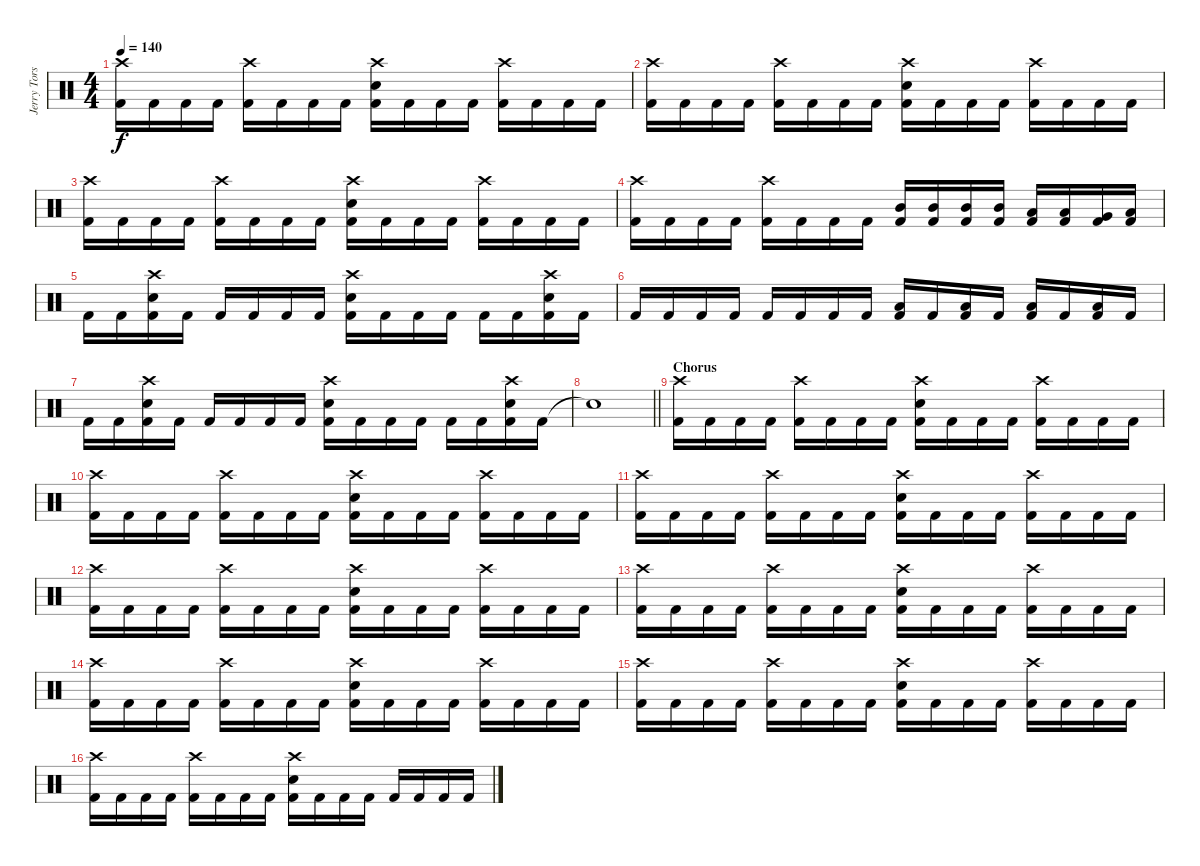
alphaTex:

\track ("Jerry Torstensson" "Jerry Tors") {instrument percussion}
\staff {score}
\articulation defaults
\ts (4 4)
\tempo 140
\clef neutral
\ks c
("Crash high (hit)" "Kick (hit) 2").16{dy f} "Kick (hit) 2".16 "Kick (hit) 2".16 "Kick (hit) 2".16 ("Crash high (hit)" "Kick (hit) 2").16 "Kick (hit) 2".16 "Kick (hit) 2".16 "Kick (hit) 2".16 ("Crash high (hit)" "Snare (hit) 2" "Kick (hit) 2").16 "Kick (hit) 2".16 "Kick (hit) 2".16 "Kick (hit) 2".16 ("Crash high (hit)" "Kick (hit) 2").16 "Kick (hit) 2".16 "Kick (hit) 2".16 "Kick (hit) 2".16 |
("Crash high (hit)" "Kick (hit) 2").16 "Kick (hit) 2".16 "Kick (hit) 2".16 "Kick (hit) 2".16 ("Crash high (hit)" "Kick (hit) 2").16 "Kick (hit) 2".16 "Kick (hit) 2".16 "Kick (hit) 2".16 ("Crash high (hit)" "Snare (hit) 2" "Kick (hit) 2").16 "Kick (hit) 2".16 "Kick (hit) 2".16 "Kick (hit) 2".16 ("Crash high (hit)" "Kick (hit) 2").16 "Kick (hit) 2".16 "Kick (hit) 2".16 "Kick (hit) 2".16 |
("Crash high (hit)" "Kick (hit) 2").16 "Kick (hit) 2".16 "Kick (hit) 2".16 "Kick (hit) 2".16 ("Crash high (hit)" "Kick (hit) 2").16 "Kick (hit) 2".16 "Kick (hit) 2".16 "Kick (hit) 2".16 ("Crash high (hit)" "Snare (hit) 2" "Kick (hit) 2").16 "Kick (hit) 2".16 "Kick (hit) 2".16 "Kick (hit) 2".16 ("Crash high (hit)" "Kick (hit) 2").16 "Kick (hit) 2".16 "Kick (hit) 2".16 "Kick (hit) 2".16 |
("Crash high (hit)" "Kick (hit) 2").16 "Kick (hit) 2".16 "Kick (hit) 2".16 "Kick (hit) 2".16 ("Crash high (hit)" "Kick (hit) 2").16 "Kick (hit) 2".16 "Kick (hit) 2".16 "Kick (hit) 2".16 ("Mid Tom (hit)" "Kick (hit) 2").16 ("Mid Tom (hit)" "Kick (hit) 2").16 ("Mid Tom (hit)" "Kick (hit) 2").16 ("Mid Tom (hit)" "Kick (hit) 2").16 ("Low Tom (hit)" "Kick (hit) 2").16 ("Low Tom (hit)" "Kick (hit) 2").16 ("Very Low Tom (hit)" "Kick (hit) 2").16 ("Low Floor Tom (hit)" "Kick (hit) 2").16 |
"Kick (hit) 2".16 "Kick (hit) 2".16 ("Crash high (hit)" "Snare (hit) 2" "Kick (hit) 2").16 "Kick (hit) 2".16 "Kick (hit) 2".16 "Kick (hit) 2".16 "Kick (hit) 2".16 "Kick (hit) 2".16 ("Crash high (hit)" "Snare (hit) 2" "Kick (hit) 2").16 "Kick (hit) 2".16 "Kick (hit) 2".16 "Kick (hit) 2".16 "Kick (hit) 2".16 "Kick (hit) 2".16 ("Crash high (hit)" "Snare (hit) 2" "Kick (hit) 2").16 "Kick (hit) 2".16 |
"Kick (hit) 2".16 "Kick (hit) 2".16 "Kick (hit) 2".16 "Kick (hit) 2".16 "Kick (hit) 2".16 "Kick (hit) 2".16 "Kick (hit) 2".16 "Kick (hit) 2".16 ("Low Tom (hit)" "Kick (hit) 2").16 "Kick (hit) 2".16 ("Low Tom (hit)" "Kick (hit) 2").16 "Kick (hit) 2".16 ("Low Tom (hit)" "Kick (hit) 2").16 "Kick (hit) 2".16 ("Low Tom (hit)" "Kick (hit) 2").16 "Kick (hit) 2".16 |
"Kick (hit) 2".16 "Kick (hit) 2".16 ("Crash high (hit)" "Snare (hit) 2" "Kick (hit) 2").16 "Kick (hit) 2".16 "Kick (hit) 2".16 "Kick (hit) 2".16 "Kick (hit) 2".16 "Kick (hit) 2".16 ("Crash high (hit)" "Snare (hit) 2" "Kick (hit) 2").16 "Kick (hit) 2".16 "Kick (hit) 2".16 "Kick (hit) 2".16 "Kick (hit) 2".16 "Kick (hit) 2".16 ("Crash high (hit)" "Snare (hit) 2" "Kick (hit) 2").16 "Kick (hit) 2".16 |
\barLineRight lightlight "Snare (hit)"{t}.1
|
\section ("" "Chorus")
("Crash high (hit)" "Kick (hit) 2").16 "Kick (hit) 2".16 "Kick (hit) 2".16 "Kick (hit) 2".16 ("Crash high (hit)" "Kick (hit) 2").16 "Kick (hit) 2".16 "Kick (hit) 2".16 "Kick (hit) 2".16 ("Crash high (hit)" "Snare (hit) 2" "Kick (hit) 2").16 "Kick (hit) 2".16 "Kick (hit) 2".16 "Kick (hit) 2".16 ("Crash high (hit)" "Kick (hit) 2").16 "Kick (hit) 2".16 "Kick (hit) 2".16 "Kick (hit) 2".16 |
("Crash high (hit)" "Kick (hit) 2").16 "Kick (hit) 2".16 "Kick (hit) 2".16 "Kick (hit) 2".16 ("Crash high (hit)" "Kick (hit) 2").16 "Kick (hit) 2".16 "Kick (hit) 2".16 "Kick (hit) 2".16 ("Crash high (hit)" "Snare (hit) 2" "Kick (hit) 2").16 "Kick (hit) 2".16 "Kick (hit) 2".16 "Kick (hit) 2".16 ("Crash high (hit)" "Kick (hit) 2").16 "Kick (hit) 2".16 "Kick (hit) 2".16 "Kick (hit) 2".16 |
("Crash high (hit)" "Kick (hit) 2").16 "Kick (hit) 2".16 "Kick (hit) 2".16 "Kick (hit) 2".16 ("Crash high (hit)" "Kick (hit) 2").16 "Kick (hit) 2".16 "Kick (hit) 2".16 "Kick (hit) 2".16 ("Crash high (hit)" "Snare (hit) 2" "Kick (hit) 2").16 "Kick (hit) 2".16 "Kick (hit) 2".16 "Kick (hit) 2".16 ("Crash high (hit)" "Kick (hit) 2").16 "Kick (hit) 2".16 "Kick (hit) 2".16 "Kick (hit) 2".16 |
("Crash high (hit)" "Kick (hit) 2").16 "Kick (hit) 2".16 "Kick (hit) 2".16 "Kick (hit) 2".16 ("Crash high (hit)" "Kick (hit) 2").16 "Kick (hit) 2".16 "Kick (hit) 2".16 "Kick (hit) 2".16 ("Crash high (hit)" "Snare (hit) 2" "Kick (hit) 2").16 "Kick (hit) 2".16 "Kick (hit) 2".16 "Kick (hit) 2".16 ("Crash high (hit)" "Kick (hit) 2").16 "Kick (hit) 2".16 "Kick (hit) 2".16 "Kick (hit) 2".16 |
("Crash high (hit)" "Kick (hit) 2").16 "Kick (hit) 2".16 "Kick (hit) 2".16 "Kick (hit) 2".16 ("Crash high (hit)" "Kick (hit) 2").16 "Kick (hit) 2".16 "Kick (hit) 2".16 "Kick (hit) 2".16 ("Crash high (hit)" "Snare (hit) 2" "Kick (hit) 2").16 "Kick (hit) 2".16 "Kick (hit) 2".16 "Kick (hit) 2".16 ("Crash high (hit)" "Kick (hit) 2").16 "Kick (hit) 2".16 "Kick (hit) 2".16 "Kick (hit) 2".16 |
("Crash high (hit)" "Kick (hit) 2").16 "Kick (hit) 2".16 "Kick (hit) 2".16 "Kick (hit) 2".16 ("Crash high (hit)" "Kick (hit) 2").16 "Kick (hit) 2".16 "Kick (hit) 2".16 "Kick (hit) 2".16 ("Crash high (hit)" "Snare (hit) 2" "Kick (hit) 2").16 "Kick (hit) 2".16 "Kick (hit) 2".16 "Kick (hit) 2".16 ("Crash high (hit)" "Kick (hit) 2").16 "Kick (hit) 2".16 "Kick (hit) 2".16 "Kick (hit) 2".16 |
("Crash high (hit)" "Kick (hit) 2").16 "Kick (hit) 2".16 "Kick (hit) 2".16 "Kick (hit) 2".16 ("Crash high (hit)" "Kick (hit) 2").16 "Kick (hit) 2".16 "Kick (hit) 2".16 "Kick (hit) 2".16 ("Crash high (hit)" "Snare (hit) 2" "Kick (hit) 2").16 "Kick (hit) 2".16 "Kick (hit) 2".16 "Kick (hit) 2".16 ("Crash high (hit)" "Kick (hit) 2").16 "Kick (hit) 2".16 "Kick (hit) 2".16 "Kick (hit) 2".16 |
("Crash high (hit)" "Kick (hit) 2").16 "Kick (hit) 2".16 "Kick (hit) 2".16 "Kick (hit) 2".16 ("Crash high (hit)" "Kick (hit) 2").16 "Kick (hit) 2".16 "Kick (hit) 2".16 "Kick (hit) 2".16 ("Crash high (hit)" "Snare (hit) 2" "Kick (hit) 2").16 "Kick (hit) 2".16 "Kick (hit) 2".16 "Kick (hit) 2".16 "Kick (hit) 2".16 "Kick (hit) 2".16 "Kick (hit) 2".16 "Kick (hit) 2".16
